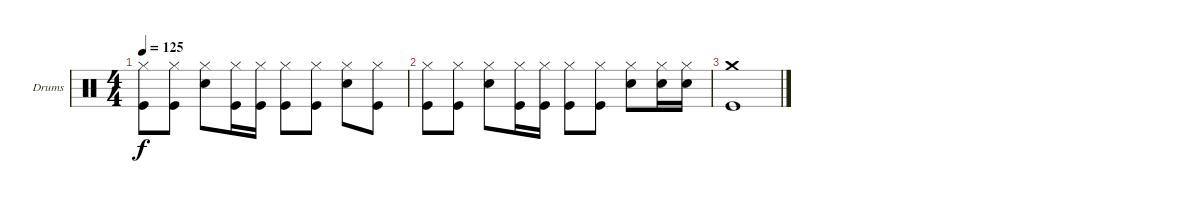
\defaultSystemsLayout 4
\bracketExtendMode groupsimilarinstruments
\firstSystemTrackNameOrientation horizontal
\otherSystemsTrackNameOrientation horizontal
\track ("Drum" "Drums") {instrument percussion}
\staff {score}
\articulation defaults
\ts (4 4)
\tempo 125
\clef neutral
\ks c
("Hi-Hat (closed)" "Kick (hit)").8{dy f} ("Hi-Hat (closed)" "Kick (hit)").8 ("Hi-Hat (closed)" "Snare (hit) 2").8 ("Hi-Hat (closed)" "Kick (hit)").16 ("Hi-Hat (closed)" "Kick (hit)").16 ("Hi-Hat (closed)" "Kick (hit)").8 ("Hi-Hat (closed)" "Kick (hit)").8 ("Hi-Hat (closed)" "Snare (hit) 2").8 ("Hi-Hat (closed)" "Kick (hit)").8 |
("Hi-Hat (closed)" "Kick (hit)").8 ("Hi-Hat (closed)" "Kick (hit)").8 ("Hi-Hat (closed)" "Snare (hit) 2").8 ("Hi-Hat (closed)" "Kick (hit)").16 ("Hi-Hat (closed)" "Kick (hit)").16 ("Hi-Hat (closed)" "Kick (hit)").8 ("Hi-Hat (closed)" "Kick (hit)").8 ("Hi-Hat (closed)" "Snare (hit) 2").8 ("Hi-Hat (closed)" "Snare (hit) 2").16 ("Hi-Hat (closed)" "Snare (hit) 2").16 |
("Crash medium (hit)" "Kick (hit)").1
